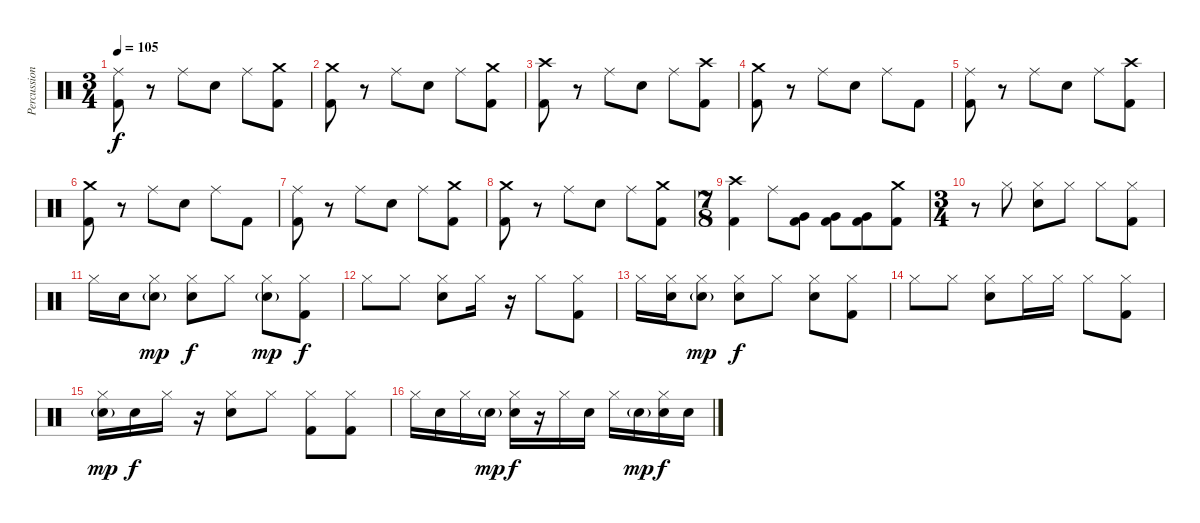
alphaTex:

\track ("Percussions" "Percussion") {instrument percussion}
\staff {score}
\articulation defaults
\ts (3 4)
\tempo 105
\clef neutral
\ks c
("Ride (middle)" "Kick (hit) 2").8{dy f} r.8 "Ride (middle)".8 "Snare (hit) 2".8 "Ride (middle)".8 ("Crash medium (hit)" "Kick (hit) 2").8 |
("Crash medium (hit)" "Kick (hit) 2").8 r.8 "Ride (middle)".8 "Snare (hit) 2".8 "Ride (middle)".8 ("Crash medium (hit)" "Kick (hit) 2").8 |
("Crash high (hit)" "Kick (hit) 2").8 r.8 "Ride (middle)".8 "Snare (hit) 2".8 "Ride (middle)".8 ("Crash high (hit)" "Kick (hit) 2").8 |
("Crash medium (hit)" "Kick (hit) 2").8 r.8 "Ride (middle)".8 "Snare (hit) 2".8 "Ride (middle)".8 "Kick (hit) 2".8 |
("Ride (middle)" "Kick (hit) 2").8 r.8 "Ride (middle)".8 "Snare (hit) 2".8 "Ride (middle)".8 ("Crash high (hit)" "Kick (hit) 2").8 |
("Crash medium (hit)" "Kick (hit) 2").8 r.8 "Ride (middle)".8 "Snare (hit) 2".8 "Ride (middle)".8 "Kick (hit) 2".8 |
("Ride (middle)" "Kick (hit) 2").8 r.8 "Ride (middle)".8 "Snare (hit) 2".8 "Ride (middle)".8 ("Crash medium (hit)" "Kick (hit) 2").8 |
("Crash medium (hit)" "Kick (hit) 2").8 r.8 "Ride (middle)".8 "Snare (hit) 2".8 "Ride (middle)".8 ("Crash medium (hit)" "Kick (hit) 2").8 |
\ts (7 8)
("Crash high (hit)" "Kick (hit) 2").4 "Ride (middle)".8 ("Very Low Tom (hit)" "Kick (hit) 2").8 ("Very Low Tom (hit)" "Kick (hit) 2").8 ("Very Low Tom (hit)" "Kick (hit) 2").8 ("Crash medium (hit)" "Kick (hit) 2").8 |
\ts (3 4)
r.8 "Hi-Hat (closed)".8 ("Hi-Hat (closed)" "Snare (hit) 2").8 "Hi-Hat (closed)".8 "Hi-Hat (closed)".8 ("Hi-Hat (closed)" "Kick (hit) 2").8 |
"Hi-Hat (closed)".16 "Snare (hit) 2".16 ("Hi-Hat (closed)" "Snare (hit) 2"{g}).8{dy mp} ("Hi-Hat (closed)" "Snare (hit) 2").8{dy f} "Hi-Hat (closed)".8 ("Hi-Hat (closed)" "Snare (hit) 2"{g}).8{dy mp} ("Hi-Hat (closed)" "Kick (hit) 2").8{dy f} |
"Hi-Hat (closed)".8 "Hi-Hat (closed)".8 ("Hi-Hat (closed)" "Snare (hit) 2").8 "Hi-Hat (closed)".16 r.16 "Hi-Hat (closed)".8 ("Hi-Hat (closed)" "Kick (hit) 2").8 |
"Hi-Hat (closed)".16 ("Hi-Hat (closed)" "Snare (hit) 2").16 ("Hi-Hat (closed)" "Snare (hit) 2"{g}).8{dy mp} ("Hi-Hat (closed)" "Snare (hit) 2").8{dy f} "Hi-Hat (closed)".8 ("Hi-Hat (closed)" "Snare (hit) 2").8 ("Hi-Hat (closed)" "Kick (hit) 2").8 |
"Hi-Hat (closed)".8 "Hi-Hat (closed)".8 ("Hi-Hat (closed)" "Snare (hit) 2").8 "Hi-Hat (closed)".16 "Hi-Hat (closed)".16 "Hi-Hat (closed)".8 ("Hi-Hat (closed)" "Kick (hit) 2").8 |
("Hi-Hat (closed)" "Snare (hit) 2"{g}).16{dy mp} "Snare (hit) 2".16{dy f} "Hi-Hat (closed)".16 r.16 ("Hi-Hat (closed)" "Snare (hit) 2").8 "Hi-Hat (closed)".8 ("Hi-Hat (closed)" "Kick (hit) 2").8 ("Hi-Hat (closed)" "Kick (hit) 2").8 |
"Hi-Hat (closed)".16 "Snare (hit) 2".16 "Hi-Hat (closed)".16 "Snare (hit) 2"{g}.16{dy mp} ("Hi-Hat (closed)" "Snare (hit) 2").16{dy f} r.16 "Hi-Hat (closed)".16 "Snare (hit) 2".16 "Hi-Hat (closed)".16 "Snare (hit) 2"{g}.16{dy mp} ("Hi-Hat (closed)" "Snare (hit) 2").16{dy f} "Snare (hit) 2".16
